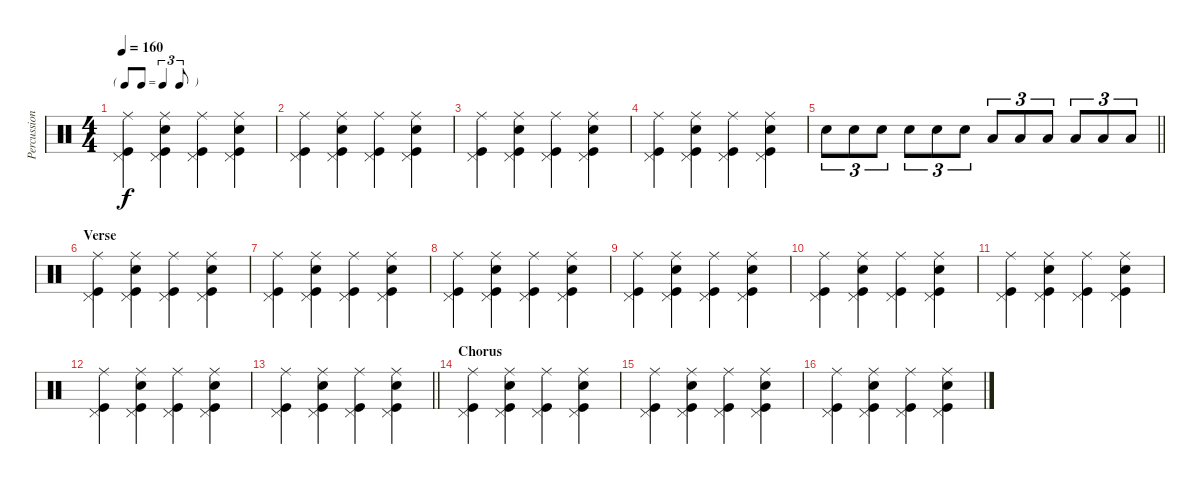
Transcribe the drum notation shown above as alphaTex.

\track ("Percussion" "Percussion") {instrument percussion}
\staff {score}
\articulation defaults
\ts (4 4)
\tf triplet8th
\tempo 160
\clef neutral
\ks c
("Ride (middle)" "Pedal Hi-Hat (hit)" "Kick (hit)").4{dy f} ("Ride (middle)" "Pedal Hi-Hat (hit)" "Kick (hit)" "Snare (hit) 2").4 ("Ride (middle)" "Pedal Hi-Hat (hit)" "Kick (hit)").4 ("Ride (middle)" "Pedal Hi-Hat (hit)" "Kick (hit)" "Snare (hit) 2").4 |
("Ride (middle)" "Pedal Hi-Hat (hit)" "Kick (hit)").4 ("Ride (middle)" "Pedal Hi-Hat (hit)" "Kick (hit)" "Snare (hit) 2").4 ("Ride (middle)" "Pedal Hi-Hat (hit)" "Kick (hit)").4 ("Ride (middle)" "Pedal Hi-Hat (hit)" "Kick (hit)" "Snare (hit) 2").4 |
("Ride (middle)" "Pedal Hi-Hat (hit)" "Kick (hit)").4 ("Ride (middle)" "Pedal Hi-Hat (hit)" "Kick (hit)" "Snare (hit) 2").4 ("Ride (middle)" "Pedal Hi-Hat (hit)" "Kick (hit)").4 ("Ride (middle)" "Pedal Hi-Hat (hit)" "Kick (hit)" "Snare (hit) 2").4 |
("Ride (middle)" "Pedal Hi-Hat (hit)" "Kick (hit)").4 ("Ride (middle)" "Pedal Hi-Hat (hit)" "Kick (hit)" "Snare (hit) 2").4 ("Ride (middle)" "Pedal Hi-Hat (hit)" "Kick (hit)").4 ("Ride (middle)" "Pedal Hi-Hat (hit)" "Kick (hit)" "Snare (hit) 2").4 |
\barLineRight lightlight "Snare (hit) 2".8{tu (3 2)} "Snare (hit) 2".8{tu (3 2)} "Snare (hit) 2".8{tu (3 2)} "Snare (hit) 2".8{tu (3 2)} "Snare (hit) 2".8{tu (3 2)} "Snare (hit) 2".8{tu (3 2)} "Low Floor Tom (hit)".8{tu (3 2)} "Low Floor Tom (hit)".8{tu (3 2)} "Low Floor Tom (hit)".8{tu (3 2)} "Low Floor Tom (hit)".8{tu (3 2)} "Low Floor Tom (hit)".8{tu (3 2)} "Low Floor Tom (hit)".8{tu (3 2)}
|
\section ("" "Verse")
("Ride (middle)" "Pedal Hi-Hat (hit)" "Kick (hit)").4 ("Ride (middle)" "Pedal Hi-Hat (hit)" "Kick (hit)" "Snare (hit) 2").4 ("Ride (middle)" "Pedal Hi-Hat (hit)" "Kick (hit)").4 ("Ride (middle)" "Pedal Hi-Hat (hit)" "Kick (hit)" "Snare (hit) 2").4 |
("Ride (middle)" "Pedal Hi-Hat (hit)" "Kick (hit)").4 ("Ride (middle)" "Pedal Hi-Hat (hit)" "Kick (hit)" "Snare (hit) 2").4 ("Ride (middle)" "Pedal Hi-Hat (hit)" "Kick (hit)").4 ("Ride (middle)" "Pedal Hi-Hat (hit)" "Kick (hit)" "Snare (hit) 2").4 |
("Ride (middle)" "Pedal Hi-Hat (hit)" "Kick (hit)").4 ("Ride (middle)" "Pedal Hi-Hat (hit)" "Kick (hit)" "Snare (hit) 2").4 ("Ride (middle)" "Pedal Hi-Hat (hit)" "Kick (hit)").4 ("Ride (middle)" "Pedal Hi-Hat (hit)" "Kick (hit)" "Snare (hit) 2").4 |
("Ride (middle)" "Pedal Hi-Hat (hit)" "Kick (hit)").4 ("Ride (middle)" "Pedal Hi-Hat (hit)" "Kick (hit)" "Snare (hit) 2").4 ("Ride (middle)" "Pedal Hi-Hat (hit)" "Kick (hit)").4 ("Ride (middle)" "Pedal Hi-Hat (hit)" "Kick (hit)" "Snare (hit) 2").4 |
("Ride (middle)" "Pedal Hi-Hat (hit)" "Kick (hit)").4 ("Ride (middle)" "Pedal Hi-Hat (hit)" "Kick (hit)" "Snare (hit) 2").4 ("Ride (middle)" "Pedal Hi-Hat (hit)" "Kick (hit)").4 ("Ride (middle)" "Pedal Hi-Hat (hit)" "Kick (hit)" "Snare (hit) 2").4 |
("Ride (middle)" "Pedal Hi-Hat (hit)" "Kick (hit)").4 ("Ride (middle)" "Pedal Hi-Hat (hit)" "Kick (hit)" "Snare (hit) 2").4 ("Ride (middle)" "Pedal Hi-Hat (hit)" "Kick (hit)").4 ("Ride (middle)" "Pedal Hi-Hat (hit)" "Kick (hit)" "Snare (hit) 2").4 |
("Ride (middle)" "Pedal Hi-Hat (hit)" "Kick (hit)").4 ("Ride (middle)" "Pedal Hi-Hat (hit)" "Kick (hit)" "Snare (hit) 2").4 ("Ride (middle)" "Pedal Hi-Hat (hit)" "Kick (hit)").4 ("Ride (middle)" "Pedal Hi-Hat (hit)" "Kick (hit)" "Snare (hit) 2").4 |
\barLineRight lightlight
("Ride (middle)" "Pedal Hi-Hat (hit)" "Kick (hit)").4 ("Ride (middle)" "Pedal Hi-Hat (hit)" "Kick (hit)" "Snare (hit) 2").4 ("Ride (middle)" "Pedal Hi-Hat (hit)" "Kick (hit)").4 ("Ride (middle)" "Pedal Hi-Hat (hit)" "Kick (hit)" "Snare (hit) 2").4 |
\section ("" "Chorus")
("Ride (middle)" "Pedal Hi-Hat (hit)" "Kick (hit)").4 ("Ride (middle)" "Pedal Hi-Hat (hit)" "Kick (hit)" "Snare (hit) 2").4 ("Ride (middle)" "Pedal Hi-Hat (hit)" "Kick (hit)").4 ("Ride (middle)" "Pedal Hi-Hat (hit)" "Kick (hit)" "Snare (hit) 2").4 |
("Ride (middle)" "Pedal Hi-Hat (hit)" "Kick (hit)").4 ("Ride (middle)" "Pedal Hi-Hat (hit)" "Kick (hit)" "Snare (hit) 2").4 ("Ride (middle)" "Pedal Hi-Hat (hit)" "Kick (hit)").4 ("Ride (middle)" "Pedal Hi-Hat (hit)" "Kick (hit)" "Snare (hit) 2").4 |
("Ride (middle)" "Pedal Hi-Hat (hit)" "Kick (hit)").4 ("Ride (middle)" "Pedal Hi-Hat (hit)" "Kick (hit)" "Snare (hit) 2").4 ("Ride (middle)" "Pedal Hi-Hat (hit)" "Kick (hit)").4 ("Ride (middle)" "Pedal Hi-Hat (hit)" "Kick (hit)" "Snare (hit) 2").4
